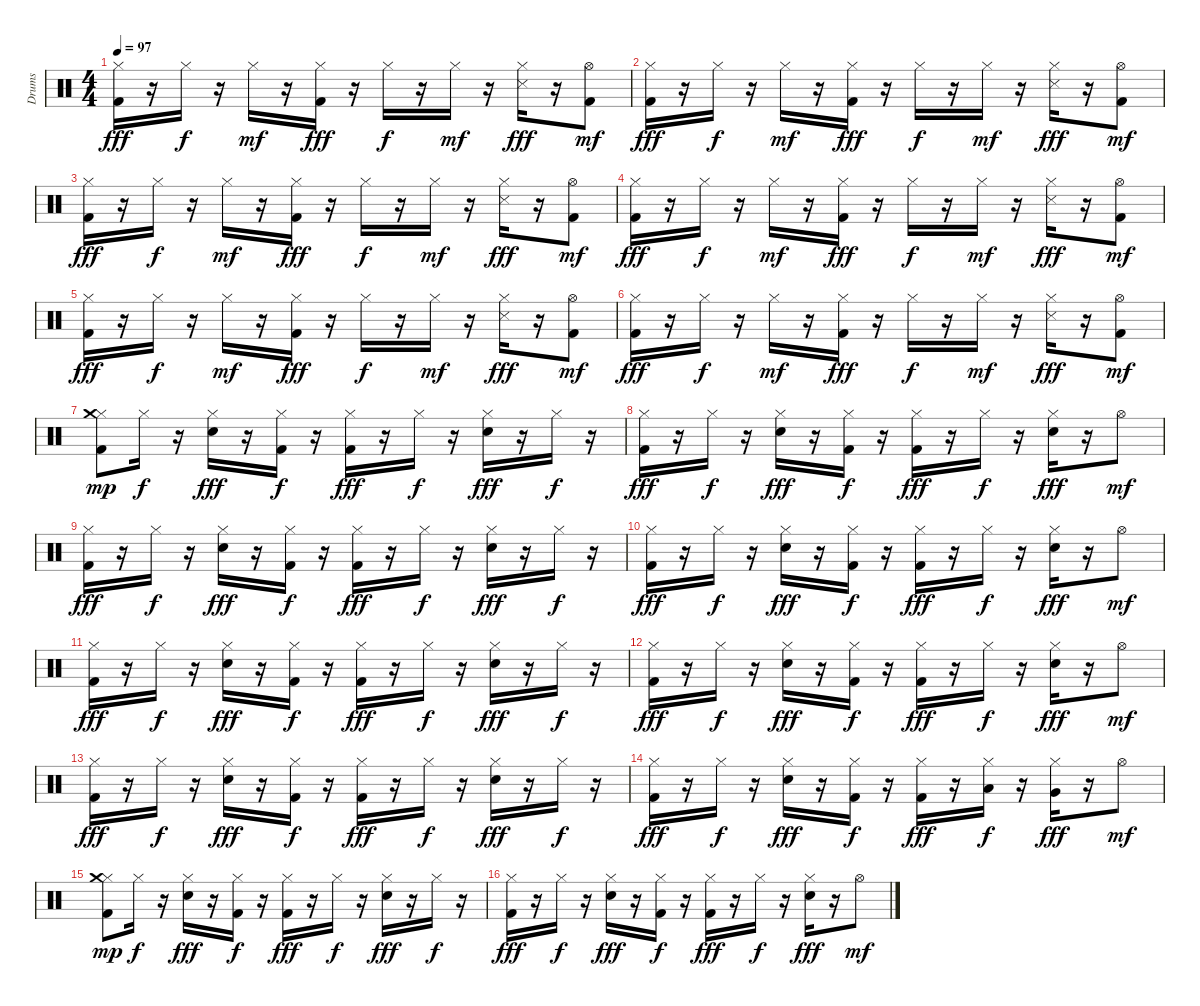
\track ("Drums" "Drums") {instrument percussion}
\staff {score}
\articulation defaults
\ts (4 4)
\tempo 97
\clef neutral
\ks c
("Kick (hit) 2" "Hi-Hat (closed)").16{dy fff} r.16 "Hi-Hat (closed)".16{dy f} r.16 "Hi-Hat (closed)".16{dy mf} r.16 ("Kick (hit) 2" "Hi-Hat (closed)").16{dy fff} r.16 "Hi-Hat (closed)".16{dy f} r.16 "Hi-Hat (closed)".16{dy mf} r.16 ("Hi-Hat (closed)" "Snare (side stick) 3").16{dy fff} r.16 ("Kick (hit) 2" "Hi-Hat (open)").8{dy mf} |
("Kick (hit) 2" "Hi-Hat (closed)").16{dy fff} r.16 "Hi-Hat (closed)".16{dy f} r.16 "Hi-Hat (closed)".16{dy mf} r.16 ("Kick (hit) 2" "Hi-Hat (closed)").16{dy fff} r.16 "Hi-Hat (closed)".16{dy f} r.16 "Hi-Hat (closed)".16{dy mf} r.16 ("Hi-Hat (closed)" "Snare (side stick) 3").16{dy fff} r.16 ("Kick (hit) 2" "Hi-Hat (open)").8{dy mf} |
("Kick (hit) 2" "Hi-Hat (closed)").16{dy fff} r.16 "Hi-Hat (closed)".16{dy f} r.16 "Hi-Hat (closed)".16{dy mf} r.16 ("Kick (hit) 2" "Hi-Hat (closed)").16{dy fff} r.16 "Hi-Hat (closed)".16{dy f} r.16 "Hi-Hat (closed)".16{dy mf} r.16 ("Hi-Hat (closed)" "Snare (side stick) 3").16{dy fff} r.16 ("Kick (hit) 2" "Hi-Hat (open)").8{dy mf} |
("Kick (hit) 2" "Hi-Hat (closed)").16{dy fff} r.16 "Hi-Hat (closed)".16{dy f} r.16 "Hi-Hat (closed)".16{dy mf} r.16 ("Kick (hit) 2" "Hi-Hat (closed)").16{dy fff} r.16 "Hi-Hat (closed)".16{dy f} r.16 "Hi-Hat (closed)".16{dy mf} r.16 ("Hi-Hat (closed)" "Snare (side stick) 3").16{dy fff} r.16 ("Kick (hit) 2" "Hi-Hat (open)").8{dy mf} |
("Kick (hit) 2" "Hi-Hat (closed)").16{dy fff} r.16 "Hi-Hat (closed)".16{dy f} r.16 "Hi-Hat (closed)".16{dy mf} r.16 ("Kick (hit) 2" "Hi-Hat (closed)").16{dy fff} r.16 "Hi-Hat (closed)".16{dy f} r.16 "Hi-Hat (closed)".16{dy mf} r.16 ("Hi-Hat (closed)" "Snare (side stick) 3").16{dy fff} r.16 ("Kick (hit) 2" "Hi-Hat (open)").8{dy mf} |
("Kick (hit) 2" "Hi-Hat (closed)").16{dy fff} r.16 "Hi-Hat (closed)".16{dy f} r.16 "Hi-Hat (closed)".16{dy mf} r.16 ("Kick (hit) 2" "Hi-Hat (closed)").16{dy fff} r.16 "Hi-Hat (closed)".16{dy f} r.16 "Hi-Hat (closed)".16{dy mf} r.16 ("Hi-Hat (closed)" "Snare (side stick) 3").16{dy fff} r.16 ("Kick (hit) 2" "Hi-Hat (open)").8{dy mf} |
("Kick (hit) 2" "Hi-Hat (closed)" "Crash medium (hit)").8{dy mp} "Hi-Hat (closed)".16{dy f} r.16 ("Electric Snare (hit)" "Hi-Hat (closed)").16{dy fff} r.16 ("Kick (hit) 2" "Hi-Hat (closed)").16{dy f} r.16 ("Kick (hit) 2" "Hi-Hat (closed)").16{dy fff} r.16 "Hi-Hat (closed)".16{dy f} r.16 ("Electric Snare (hit)" "Hi-Hat (closed)").16{dy fff} r.16 "Hi-Hat (closed)".16{dy f} r.16 |
("Kick (hit) 2" "Hi-Hat (closed)").16{dy fff} r.16 "Hi-Hat (closed)".16{dy f} r.16 ("Electric Snare (hit)" "Hi-Hat (closed)").16{dy fff} r.16 ("Kick (hit) 2" "Hi-Hat (closed)").16{dy f} r.16 ("Kick (hit) 2" "Hi-Hat (closed)").16{dy fff} r.16 "Hi-Hat (closed)".16{dy f} r.16 ("Electric Snare (hit)" "Hi-Hat (closed)").16{dy fff} r.16 "Hi-Hat (open)".8{dy mf} |
("Kick (hit) 2" "Hi-Hat (closed)").16{dy fff} r.16 "Hi-Hat (closed)".16{dy f} r.16 ("Electric Snare (hit)" "Hi-Hat (closed)").16{dy fff} r.16 ("Kick (hit) 2" "Hi-Hat (closed)").16{dy f} r.16 ("Kick (hit) 2" "Hi-Hat (closed)").16{dy fff} r.16 "Hi-Hat (closed)".16{dy f} r.16 ("Electric Snare (hit)" "Hi-Hat (closed)").16{dy fff} r.16 "Hi-Hat (closed)".16{dy f} r.16 |
("Kick (hit) 2" "Hi-Hat (closed)").16{dy fff} r.16 "Hi-Hat (closed)".16{dy f} r.16 ("Electric Snare (hit)" "Hi-Hat (closed)").16{dy fff} r.16 ("Kick (hit) 2" "Hi-Hat (closed)").16{dy f} r.16 ("Kick (hit) 2" "Hi-Hat (closed)").16{dy fff} r.16 "Hi-Hat (closed)".16{dy f} r.16 ("Electric Snare (hit)" "Hi-Hat (closed)").16{dy fff} r.16 "Hi-Hat (open)".8{dy mf} |
("Kick (hit) 2" "Hi-Hat (closed)").16{dy fff} r.16 "Hi-Hat (closed)".16{dy f} r.16 ("Electric Snare (hit)" "Hi-Hat (closed)").16{dy fff} r.16 ("Kick (hit) 2" "Hi-Hat (closed)").16{dy f} r.16 ("Kick (hit) 2" "Hi-Hat (closed)").16{dy fff} r.16 "Hi-Hat (closed)".16{dy f} r.16 ("Electric Snare (hit)" "Hi-Hat (closed)").16{dy fff} r.16 "Hi-Hat (closed)".16{dy f} r.16 |
("Kick (hit) 2" "Hi-Hat (closed)").16{dy fff} r.16 "Hi-Hat (closed)".16{dy f} r.16 ("Electric Snare (hit)" "Hi-Hat (closed)").16{dy fff} r.16 ("Kick (hit) 2" "Hi-Hat (closed)").16{dy f} r.16 ("Kick (hit) 2" "Hi-Hat (closed)").16{dy fff} r.16 "Hi-Hat (closed)".16{dy f} r.16 ("Electric Snare (hit)" "Hi-Hat (closed)").16{dy fff} r.16 "Hi-Hat (open)".8{dy mf} |
("Kick (hit) 2" "Hi-Hat (closed)").16{dy fff} r.16 "Hi-Hat (closed)".16{dy f} r.16 ("Electric Snare (hit)" "Hi-Hat (closed)").16{dy fff} r.16 ("Kick (hit) 2" "Hi-Hat (closed)").16{dy f} r.16 ("Kick (hit) 2" "Hi-Hat (closed)").16{dy fff} r.16 "Hi-Hat (closed)".16{dy f} r.16 ("Electric Snare (hit)" "Hi-Hat (closed)").16{dy fff} r.16 "Hi-Hat (closed)".16{dy f} r.16 |
("Kick (hit) 2" "Hi-Hat (closed)").16{dy fff} r.16 "Hi-Hat (closed)".16{dy f} r.16 ("Electric Snare (hit)" "Hi-Hat (closed)").16{dy fff} r.16 ("Kick (hit) 2" "Hi-Hat (closed)").16{dy f} r.16 ("Kick (hit) 2" "Hi-Hat (closed)").16{dy fff} r.16 ("Hi-Hat (closed)" "Low Tom (hit)").16{dy f} r.16 ("Hi-Hat (closed)" "Very Low Tom (hit)").16{dy fff} r.16 "Hi-Hat (open)".8{dy mf} |
("Kick (hit) 2" "Hi-Hat (closed)" "Crash medium (hit)").8{dy mp} "Hi-Hat (closed)".16{dy f} r.16 ("Electric Snare (hit)" "Hi-Hat (closed)").16{dy fff} r.16 ("Kick (hit) 2" "Hi-Hat (closed)").16{dy f} r.16 ("Kick (hit) 2" "Hi-Hat (closed)").16{dy fff} r.16 "Hi-Hat (closed)".16{dy f} r.16 ("Electric Snare (hit)" "Hi-Hat (closed)").16{dy fff} r.16 "Hi-Hat (closed)".16{dy f} r.16 |
("Kick (hit) 2" "Hi-Hat (closed)").16{dy fff} r.16 "Hi-Hat (closed)".16{dy f} r.16 ("Electric Snare (hit)" "Hi-Hat (closed)").16{dy fff} r.16 ("Kick (hit) 2" "Hi-Hat (closed)").16{dy f} r.16 ("Kick (hit) 2" "Hi-Hat (closed)").16{dy fff} r.16 "Hi-Hat (closed)".16{dy f} r.16 ("Electric Snare (hit)" "Hi-Hat (closed)").16{dy fff} r.16 "Hi-Hat (open)".8{dy mf}
